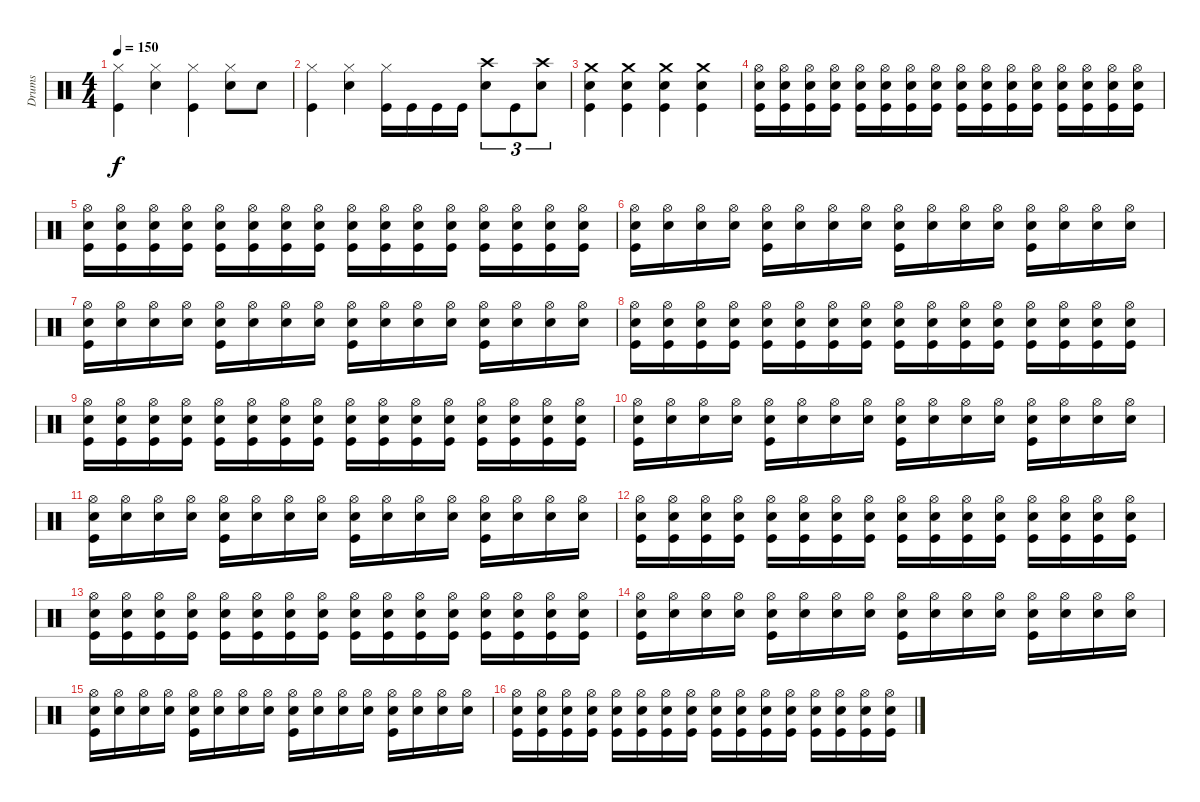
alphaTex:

\track ("Drums" "Drums") {instrument percussion}
\staff {score}
\articulation defaults
\ts (4 4)
\tempo 150
\clef neutral
\ks c
("Kick (hit)" "Hi-Hat (closed)").4{dy f} ("Electric Snare (hit)" "Hi-Hat (closed)").4 ("Kick (hit)" "Hi-Hat (closed)").4 ("Electric Snare (hit)" "Hi-Hat (closed)").8 "Electric Snare (hit)".8 |
("Kick (hit)" "Hi-Hat (closed)").4 ("Electric Snare (hit)" "Hi-Hat (closed)").4 ("Kick (hit)" "Hi-Hat (closed)").16 "Kick (hit)".16 "Kick (hit)".16 "Kick (hit)".16 ("Electric Snare (hit)" "Crash high (hit)").8{tu (3 2)} "Kick (hit)".8{tu (3 2)} ("Electric Snare (hit)" "Crash high (hit)").8{tu (3 2)} |
("Kick (hit)" "Electric Snare (hit)" "Crash medium (hit)").4 ("Kick (hit)" "Electric Snare (hit)" "Crash medium (hit)").4 ("Kick (hit)" "Electric Snare (hit)" "Crash medium (hit)").4 ("Kick (hit)" "Electric Snare (hit)" "Crash medium (hit)").4 |
("Kick (hit)" "Electric Snare (hit)" "Hi-Hat (open)").16 ("Kick (hit)" "Electric Snare (hit)" "Hi-Hat (open)").16 ("Kick (hit)" "Electric Snare (hit)" "Hi-Hat (open)").16 ("Kick (hit)" "Electric Snare (hit)" "Hi-Hat (open)").16 ("Kick (hit)" "Electric Snare (hit)" "Hi-Hat (open)").16 ("Kick (hit)" "Electric Snare (hit)" "Hi-Hat (open)").16 ("Kick (hit)" "Electric Snare (hit)" "Hi-Hat (open)").16 ("Kick (hit)" "Electric Snare (hit)" "Hi-Hat (open)").16 ("Kick (hit)" "Electric Snare (hit)" "Hi-Hat (open)").16 ("Kick (hit)" "Electric Snare (hit)" "Hi-Hat (open)").16 ("Kick (hit)" "Electric Snare (hit)" "Hi-Hat (open)").16 ("Kick (hit)" "Electric Snare (hit)" "Hi-Hat (open)").16 ("Kick (hit)" "Electric Snare (hit)" "Hi-Hat (open)").16 ("Kick (hit)" "Electric Snare (hit)" "Hi-Hat (open)").16 ("Kick (hit)" "Electric Snare (hit)" "Hi-Hat (open)").16 ("Kick (hit)" "Electric Snare (hit)" "Hi-Hat (open)").16 |
("Kick (hit)" "Electric Snare (hit)" "Hi-Hat (open)").16 ("Kick (hit)" "Electric Snare (hit)" "Hi-Hat (open)").16 ("Kick (hit)" "Electric Snare (hit)" "Hi-Hat (open)").16 ("Kick (hit)" "Electric Snare (hit)" "Hi-Hat (open)").16 ("Kick (hit)" "Electric Snare (hit)" "Hi-Hat (open)").16 ("Kick (hit)" "Electric Snare (hit)" "Hi-Hat (open)").16 ("Kick (hit)" "Electric Snare (hit)" "Hi-Hat (open)").16 ("Kick (hit)" "Electric Snare (hit)" "Hi-Hat (open)").16 ("Kick (hit)" "Electric Snare (hit)" "Hi-Hat (open)").16 ("Kick (hit)" "Electric Snare (hit)" "Hi-Hat (open)").16 ("Kick (hit)" "Electric Snare (hit)" "Hi-Hat (open)").16 ("Kick (hit)" "Electric Snare (hit)" "Hi-Hat (open)").16 ("Kick (hit)" "Electric Snare (hit)" "Hi-Hat (open)").16 ("Kick (hit)" "Electric Snare (hit)" "Hi-Hat (open)").16 ("Kick (hit)" "Electric Snare (hit)" "Hi-Hat (open)").16 ("Kick (hit)" "Electric Snare (hit)" "Hi-Hat (open)").16 |
("Kick (hit)" "Electric Snare (hit)" "Hi-Hat (open)").16 ("Electric Snare (hit)" "Hi-Hat (open)").16 ("Electric Snare (hit)" "Hi-Hat (open)").16 ("Electric Snare (hit)" "Hi-Hat (open)").16 ("Kick (hit)" "Electric Snare (hit)" "Hi-Hat (open)").16 ("Electric Snare (hit)" "Hi-Hat (open)").16 ("Electric Snare (hit)" "Hi-Hat (open)").16 ("Electric Snare (hit)" "Hi-Hat (open)").16 ("Kick (hit)" "Electric Snare (hit)" "Hi-Hat (open)").16 ("Electric Snare (hit)" "Hi-Hat (open)").16 ("Electric Snare (hit)" "Hi-Hat (open)").16 ("Electric Snare (hit)" "Hi-Hat (open)").16 ("Kick (hit)" "Electric Snare (hit)" "Hi-Hat (open)").16 ("Electric Snare (hit)" "Hi-Hat (open)").16 ("Electric Snare (hit)" "Hi-Hat (open)").16 ("Electric Snare (hit)" "Hi-Hat (open)").16 |
("Kick (hit)" "Electric Snare (hit)" "Hi-Hat (open)").16 ("Electric Snare (hit)" "Hi-Hat (open)").16 ("Electric Snare (hit)" "Hi-Hat (open)").16 ("Electric Snare (hit)" "Hi-Hat (open)").16 ("Kick (hit)" "Electric Snare (hit)" "Hi-Hat (open)").16 ("Electric Snare (hit)" "Hi-Hat (open)").16 ("Electric Snare (hit)" "Hi-Hat (open)").16 ("Electric Snare (hit)" "Hi-Hat (open)").16 ("Kick (hit)" "Electric Snare (hit)" "Hi-Hat (open)").16 ("Electric Snare (hit)" "Hi-Hat (open)").16 ("Electric Snare (hit)" "Hi-Hat (open)").16 ("Electric Snare (hit)" "Hi-Hat (open)").16 ("Kick (hit)" "Electric Snare (hit)" "Hi-Hat (open)").16 ("Electric Snare (hit)" "Hi-Hat (open)").16 ("Electric Snare (hit)" "Hi-Hat (open)").16 ("Electric Snare (hit)" "Hi-Hat (open)").16 |
("Kick (hit)" "Electric Snare (hit)" "Hi-Hat (open)").16 ("Kick (hit)" "Electric Snare (hit)" "Hi-Hat (open)").16 ("Kick (hit)" "Electric Snare (hit)" "Hi-Hat (open)").16 ("Kick (hit)" "Electric Snare (hit)" "Hi-Hat (open)").16 ("Kick (hit)" "Electric Snare (hit)" "Hi-Hat (open)").16 ("Kick (hit)" "Electric Snare (hit)" "Hi-Hat (open)").16 ("Kick (hit)" "Electric Snare (hit)" "Hi-Hat (open)").16 ("Kick (hit)" "Electric Snare (hit)" "Hi-Hat (open)").16 ("Kick (hit)" "Electric Snare (hit)" "Hi-Hat (open)").16 ("Kick (hit)" "Electric Snare (hit)" "Hi-Hat (open)").16 ("Kick (hit)" "Electric Snare (hit)" "Hi-Hat (open)").16 ("Kick (hit)" "Electric Snare (hit)" "Hi-Hat (open)").16 ("Kick (hit)" "Electric Snare (hit)" "Hi-Hat (open)").16 ("Kick (hit)" "Electric Snare (hit)" "Hi-Hat (open)").16 ("Kick (hit)" "Electric Snare (hit)" "Hi-Hat (open)").16 ("Kick (hit)" "Electric Snare (hit)" "Hi-Hat (open)").16 |
("Kick (hit)" "Electric Snare (hit)" "Hi-Hat (open)").16 ("Kick (hit)" "Electric Snare (hit)" "Hi-Hat (open)").16 ("Kick (hit)" "Electric Snare (hit)" "Hi-Hat (open)").16 ("Kick (hit)" "Electric Snare (hit)" "Hi-Hat (open)").16 ("Kick (hit)" "Electric Snare (hit)" "Hi-Hat (open)").16 ("Kick (hit)" "Electric Snare (hit)" "Hi-Hat (open)").16 ("Kick (hit)" "Electric Snare (hit)" "Hi-Hat (open)").16 ("Kick (hit)" "Electric Snare (hit)" "Hi-Hat (open)").16 ("Kick (hit)" "Electric Snare (hit)" "Hi-Hat (open)").16 ("Kick (hit)" "Electric Snare (hit)" "Hi-Hat (open)").16 ("Kick (hit)" "Electric Snare (hit)" "Hi-Hat (open)").16 ("Kick (hit)" "Electric Snare (hit)" "Hi-Hat (open)").16 ("Kick (hit)" "Electric Snare (hit)" "Hi-Hat (open)").16 ("Kick (hit)" "Electric Snare (hit)" "Hi-Hat (open)").16 ("Kick (hit)" "Electric Snare (hit)" "Hi-Hat (open)").16 ("Kick (hit)" "Electric Snare (hit)" "Hi-Hat (open)").16 |
("Kick (hit)" "Electric Snare (hit)" "Hi-Hat (open)").16 ("Electric Snare (hit)" "Hi-Hat (open)").16 ("Electric Snare (hit)" "Hi-Hat (open)").16 ("Electric Snare (hit)" "Hi-Hat (open)").16 ("Kick (hit)" "Electric Snare (hit)" "Hi-Hat (open)").16 ("Electric Snare (hit)" "Hi-Hat (open)").16 ("Electric Snare (hit)" "Hi-Hat (open)").16 ("Electric Snare (hit)" "Hi-Hat (open)").16 ("Kick (hit)" "Electric Snare (hit)" "Hi-Hat (open)").16 ("Electric Snare (hit)" "Hi-Hat (open)").16 ("Electric Snare (hit)" "Hi-Hat (open)").16 ("Electric Snare (hit)" "Hi-Hat (open)").16 ("Kick (hit)" "Electric Snare (hit)" "Hi-Hat (open)").16 ("Electric Snare (hit)" "Hi-Hat (open)").16 ("Electric Snare (hit)" "Hi-Hat (open)").16 ("Electric Snare (hit)" "Hi-Hat (open)").16 |
("Kick (hit)" "Electric Snare (hit)" "Hi-Hat (open)").16 ("Electric Snare (hit)" "Hi-Hat (open)").16 ("Electric Snare (hit)" "Hi-Hat (open)").16 ("Electric Snare (hit)" "Hi-Hat (open)").16 ("Kick (hit)" "Electric Snare (hit)" "Hi-Hat (open)").16 ("Electric Snare (hit)" "Hi-Hat (open)").16 ("Electric Snare (hit)" "Hi-Hat (open)").16 ("Electric Snare (hit)" "Hi-Hat (open)").16 ("Kick (hit)" "Electric Snare (hit)" "Hi-Hat (open)").16 ("Electric Snare (hit)" "Hi-Hat (open)").16 ("Electric Snare (hit)" "Hi-Hat (open)").16 ("Electric Snare (hit)" "Hi-Hat (open)").16 ("Kick (hit)" "Electric Snare (hit)" "Hi-Hat (open)").16 ("Electric Snare (hit)" "Hi-Hat (open)").16 ("Electric Snare (hit)" "Hi-Hat (open)").16 ("Electric Snare (hit)" "Hi-Hat (open)").16 |
("Kick (hit)" "Electric Snare (hit)" "Hi-Hat (open)").16 ("Kick (hit)" "Electric Snare (hit)" "Hi-Hat (open)").16 ("Kick (hit)" "Electric Snare (hit)" "Hi-Hat (open)").16 ("Kick (hit)" "Electric Snare (hit)" "Hi-Hat (open)").16 ("Kick (hit)" "Electric Snare (hit)" "Hi-Hat (open)").16 ("Kick (hit)" "Electric Snare (hit)" "Hi-Hat (open)").16 ("Kick (hit)" "Electric Snare (hit)" "Hi-Hat (open)").16 ("Kick (hit)" "Electric Snare (hit)" "Hi-Hat (open)").16 ("Kick (hit)" "Electric Snare (hit)" "Hi-Hat (open)").16 ("Kick (hit)" "Electric Snare (hit)" "Hi-Hat (open)").16 ("Kick (hit)" "Electric Snare (hit)" "Hi-Hat (open)").16 ("Kick (hit)" "Electric Snare (hit)" "Hi-Hat (open)").16 ("Kick (hit)" "Electric Snare (hit)" "Hi-Hat (open)").16 ("Kick (hit)" "Electric Snare (hit)" "Hi-Hat (open)").16 ("Kick (hit)" "Electric Snare (hit)" "Hi-Hat (open)").16 ("Kick (hit)" "Electric Snare (hit)" "Hi-Hat (open)").16 |
("Kick (hit)" "Electric Snare (hit)" "Hi-Hat (open)").16 ("Kick (hit)" "Electric Snare (hit)" "Hi-Hat (open)").16 ("Kick (hit)" "Electric Snare (hit)" "Hi-Hat (open)").16 ("Kick (hit)" "Electric Snare (hit)" "Hi-Hat (open)").16 ("Kick (hit)" "Electric Snare (hit)" "Hi-Hat (open)").16 ("Kick (hit)" "Electric Snare (hit)" "Hi-Hat (open)").16 ("Kick (hit)" "Electric Snare (hit)" "Hi-Hat (open)").16 ("Kick (hit)" "Electric Snare (hit)" "Hi-Hat (open)").16 ("Kick (hit)" "Electric Snare (hit)" "Hi-Hat (open)").16 ("Kick (hit)" "Electric Snare (hit)" "Hi-Hat (open)").16 ("Kick (hit)" "Electric Snare (hit)" "Hi-Hat (open)").16 ("Kick (hit)" "Electric Snare (hit)" "Hi-Hat (open)").16 ("Kick (hit)" "Electric Snare (hit)" "Hi-Hat (open)").16 ("Kick (hit)" "Electric Snare (hit)" "Hi-Hat (open)").16 ("Kick (hit)" "Electric Snare (hit)" "Hi-Hat (open)").16 ("Kick (hit)" "Electric Snare (hit)" "Hi-Hat (open)").16 |
("Kick (hit)" "Electric Snare (hit)" "Hi-Hat (open)").16 ("Electric Snare (hit)" "Hi-Hat (open)").16 ("Electric Snare (hit)" "Hi-Hat (open)").16 ("Electric Snare (hit)" "Hi-Hat (open)").16 ("Kick (hit)" "Electric Snare (hit)" "Hi-Hat (open)").16 ("Electric Snare (hit)" "Hi-Hat (open)").16 ("Electric Snare (hit)" "Hi-Hat (open)").16 ("Electric Snare (hit)" "Hi-Hat (open)").16 ("Kick (hit)" "Electric Snare (hit)" "Hi-Hat (open)").16 ("Electric Snare (hit)" "Hi-Hat (open)").16 ("Electric Snare (hit)" "Hi-Hat (open)").16 ("Electric Snare (hit)" "Hi-Hat (open)").16 ("Kick (hit)" "Electric Snare (hit)" "Hi-Hat (open)").16 ("Electric Snare (hit)" "Hi-Hat (open)").16 ("Electric Snare (hit)" "Hi-Hat (open)").16 ("Electric Snare (hit)" "Hi-Hat (open)").16 |
("Kick (hit)" "Electric Snare (hit)" "Hi-Hat (open)").16 ("Electric Snare (hit)" "Hi-Hat (open)").16 ("Electric Snare (hit)" "Hi-Hat (open)").16 ("Electric Snare (hit)" "Hi-Hat (open)").16 ("Kick (hit)" "Electric Snare (hit)" "Hi-Hat (open)").16 ("Electric Snare (hit)" "Hi-Hat (open)").16 ("Electric Snare (hit)" "Hi-Hat (open)").16 ("Electric Snare (hit)" "Hi-Hat (open)").16 ("Kick (hit)" "Electric Snare (hit)" "Hi-Hat (open)").16 ("Electric Snare (hit)" "Hi-Hat (open)").16 ("Electric Snare (hit)" "Hi-Hat (open)").16 ("Electric Snare (hit)" "Hi-Hat (open)").16 ("Kick (hit)" "Electric Snare (hit)" "Hi-Hat (open)").16 ("Electric Snare (hit)" "Hi-Hat (open)").16 ("Electric Snare (hit)" "Hi-Hat (open)").16 ("Electric Snare (hit)" "Hi-Hat (open)").16 |
("Kick (hit)" "Electric Snare (hit)" "Hi-Hat (open)").16 ("Kick (hit)" "Electric Snare (hit)" "Hi-Hat (open)").16 ("Kick (hit)" "Electric Snare (hit)" "Hi-Hat (open)").16 ("Kick (hit)" "Electric Snare (hit)" "Hi-Hat (open)").16 ("Kick (hit)" "Electric Snare (hit)" "Hi-Hat (open)").16 ("Kick (hit)" "Electric Snare (hit)" "Hi-Hat (open)").16 ("Kick (hit)" "Electric Snare (hit)" "Hi-Hat (open)").16 ("Kick (hit)" "Electric Snare (hit)" "Hi-Hat (open)").16 ("Kick (hit)" "Electric Snare (hit)" "Hi-Hat (open)").16 ("Kick (hit)" "Electric Snare (hit)" "Hi-Hat (open)").16 ("Kick (hit)" "Electric Snare (hit)" "Hi-Hat (open)").16 ("Kick (hit)" "Electric Snare (hit)" "Hi-Hat (open)").16 ("Kick (hit)" "Electric Snare (hit)" "Hi-Hat (open)").16 ("Kick (hit)" "Electric Snare (hit)" "Hi-Hat (open)").16 ("Kick (hit)" "Electric Snare (hit)" "Hi-Hat (open)").16 ("Kick (hit)" "Electric Snare (hit)" "Hi-Hat (open)").16
